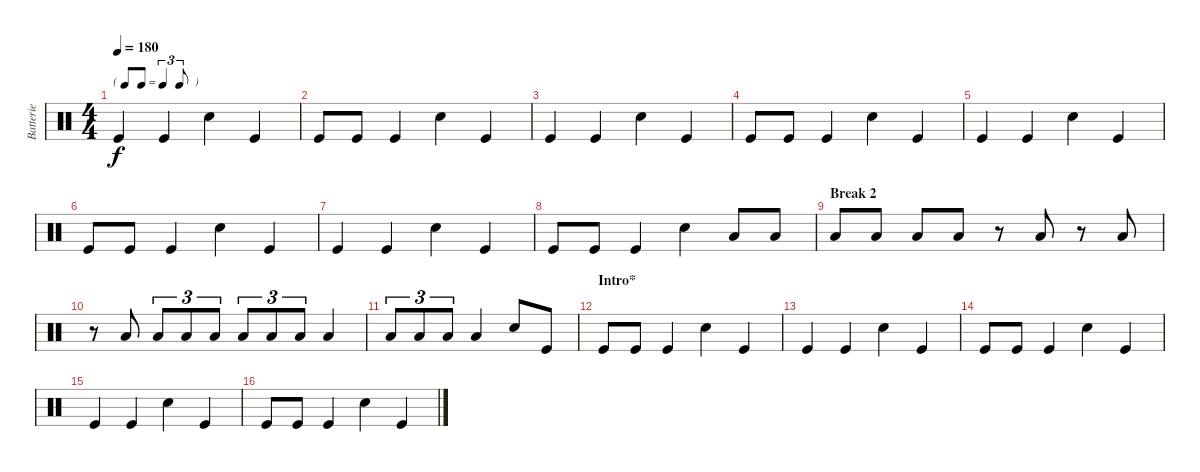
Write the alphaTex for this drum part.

\track ("Batterie" "Batterie") {instrument percussion}
\staff {score}
\articulation defaults
\ts (4 4)
\tf triplet8th
\tempo 180
\clef neutral
\ks c "Kick (hit)".4{dy f} "Kick (hit)".4 "Electric Snare (hit)".4 "Kick (hit)".4
|
"Kick (hit)".8 "Kick (hit)".8 "Kick (hit)".4 "Electric Snare (hit)".4 "Kick (hit)".4 |
"Kick (hit)".4 "Kick (hit)".4 "Electric Snare (hit)".4 "Kick (hit)".4 |
"Kick (hit)".8 "Kick (hit)".8 "Kick (hit)".4 "Electric Snare (hit)".4 "Kick (hit)".4 |
"Kick (hit)".4 "Kick (hit)".4 "Electric Snare (hit)".4 "Kick (hit)".4 |
"Kick (hit)".8 "Kick (hit)".8 "Kick (hit)".4 "Electric Snare (hit)".4 "Kick (hit)".4 |
"Kick (hit)".4 "Kick (hit)".4 "Electric Snare (hit)".4 "Kick (hit)".4 |
"Kick (hit)".8 "Kick (hit)".8 "Kick (hit)".4 "Electric Snare (hit)".4 "Low Tom (hit)".8 "Low Tom (hit)".8 |
\section ("" "Break 2")
"Low Tom (hit)".8 "Low Tom (hit)".8 "Low Tom (hit)".8 "Low Tom (hit)".8 r.8 "Low Tom (hit)".8 r.8 "Low Tom (hit)".8 |
r.8 "Low Tom (hit)".8 "Low Tom (hit)".8{tu (3 2)} "Low Tom (hit)".8{tu (3 2)} "Low Tom (hit)".8{tu (3 2)} "Low Tom (hit)".8{tu (3 2)} "Low Tom (hit)".8{tu (3 2)} "Low Tom (hit)".8{tu (3 2)} "Low Tom (hit)".4 |
"Low Tom (hit)".8{tu (3 2)} "Low Tom (hit)".8{tu (3 2)} "Low Tom (hit)".8{tu (3 2)} "Low Tom (hit)".4 "Electric Snare (hit)".8 "Kick (hit)".8 |
\section ("" "Intro*")
"Kick (hit)".8 "Kick (hit)".8 "Kick (hit)".4 "Electric Snare (hit)".4 "Kick (hit)".4 |
"Kick (hit)".4 "Kick (hit)".4 "Electric Snare (hit)".4 "Kick (hit)".4 |
"Kick (hit)".8 "Kick (hit)".8 "Kick (hit)".4 "Electric Snare (hit)".4 "Kick (hit)".4 |
"Kick (hit)".4 "Kick (hit)".4 "Electric Snare (hit)".4 "Kick (hit)".4 |
"Kick (hit)".8 "Kick (hit)".8 "Kick (hit)".4 "Electric Snare (hit)".4 "Kick (hit)".4
